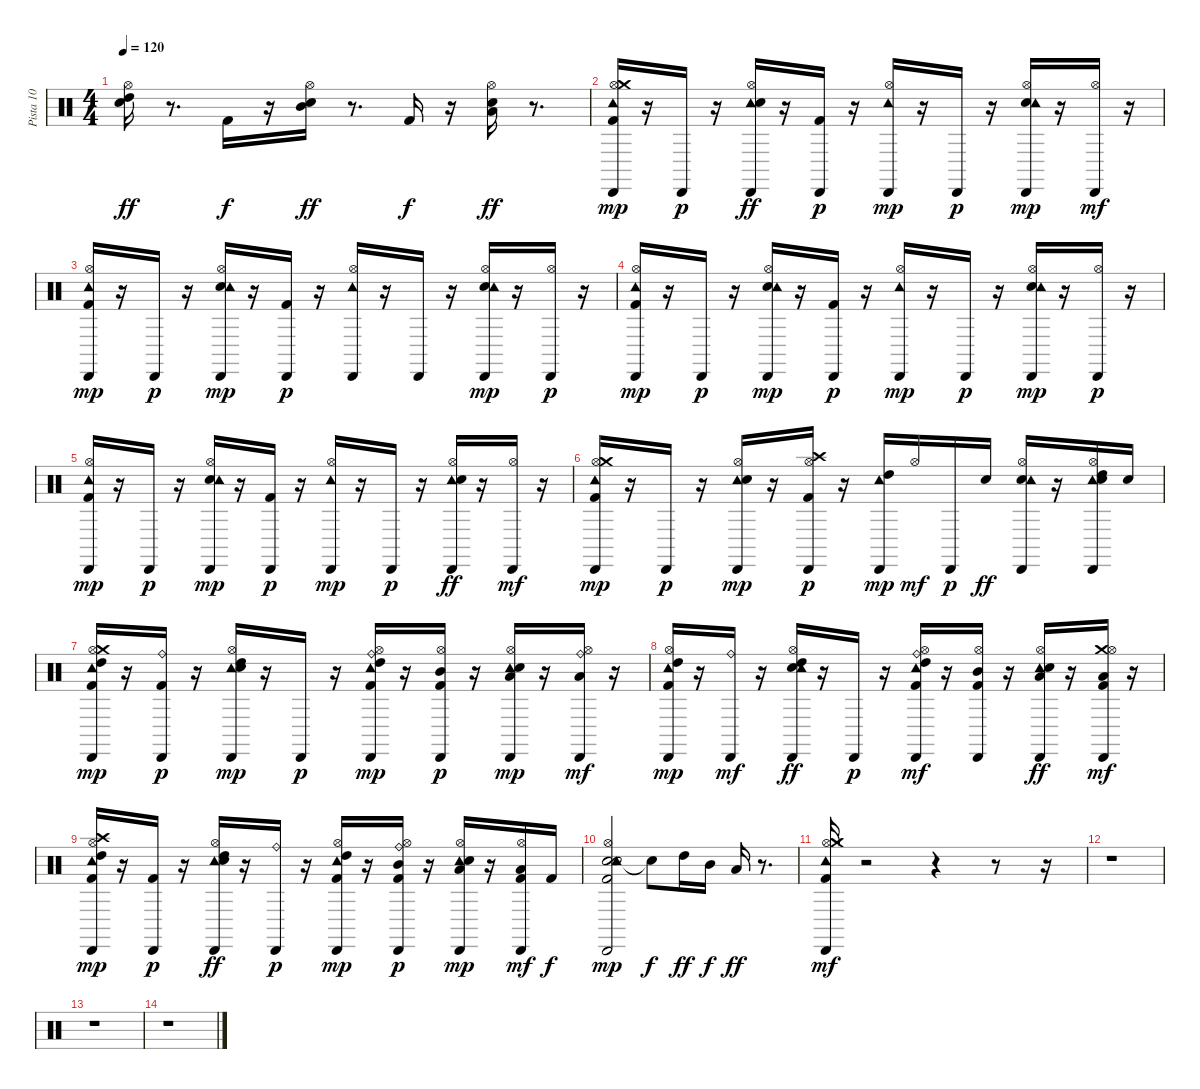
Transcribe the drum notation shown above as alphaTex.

\track ("Pista 10" "Pista 10") {instrument percussion}
\staff {score}
\articulation defaults
\ts (4 4)
\tempo 120
\clef neutral
\ks c
("Hi-Hat (open)" "High Tom (hit)" "Electric Snare (hit)").16{dy ff} r.8{d} "Kick (hit) 2".16{dy f} r.16 ("Electric Snare (hit)" "Mid Tom (hit)" "Hi-Hat (open)").16{dy ff} r.8{d} "Kick (hit) 2".16{dy f} r.16 ("Electric Snare (hit)" "Low Tom (hit)" "Hi-Hat (open)").16{dy ff} r.8{d} |
("Kick (hit) 2" "Hi-Hat (open)" "Crash medium (hit)" "Tambourine (hit)" "Cabasa (hit)").16{dy mp} r.16 "Cabasa (hit)".16{dy p} r.16 ("Hi-Hat (open)" "Tambourine (hit)" "Cabasa (hit)" "Electric Snare (hit)").16{dy ff} r.16 ("Kick (hit) 2" "Cabasa (hit)").16{dy p} r.16 ("Cabasa (hit)" "Hi-Hat (open)" "Tambourine (hit)").16{dy mp} r.16 "Cabasa (hit)".16{dy p} r.16 ("Electric Snare (hit)" "Tambourine (hit)" "Cabasa (hit)" "Hi-Hat (open)").16{dy mp} r.16 ("Cabasa (hit)" "Hi-Hat (open)").16{dy mf} r.16 |
("Kick (hit) 2" "Hi-Hat (open)" "Cabasa (hit)" "Tambourine (hit)").16{dy mp} r.16 "Cabasa (hit)".16{dy p} r.16 ("Electric Snare (hit)" "Hi-Hat (open)" "Cabasa (hit)" "Tambourine (hit)").16{dy mp} r.16 ("Kick (hit) 2" "Cabasa (hit)").16{dy p} r.16 ("Cabasa (hit)" "Hi-Hat (open)" "Tambourine (hit)").16 r.16 "Cabasa (hit)".16 r.16 ("Electric Snare (hit)" "Hi-Hat (open)" "Tambourine (hit)" "Cabasa (hit)").16{dy mp} r.16 ("Hi-Hat (open)" "Cabasa (hit)").16{dy p} r.16 |
("Hi-Hat (open)" "Kick (hit) 2" "Tambourine (hit)" "Cabasa (hit)").16{dy mp} r.16 "Cabasa (hit)".16{dy p} r.16 ("Electric Snare (hit)" "Hi-Hat (open)" "Tambourine (hit)" "Cabasa (hit)").16{dy mp} r.16 ("Kick (hit) 2" "Cabasa (hit)").16{dy p} r.16 ("Hi-Hat (open)" "Tambourine (hit)" "Cabasa (hit)").16{dy mp} r.16 "Cabasa (hit)".16{dy p} r.16 ("Electric Snare (hit)" "Hi-Hat (open)" "Cabasa (hit)" "Tambourine (hit)").16{dy mp} r.16 ("Hi-Hat (open)" "Cabasa (hit)").16{dy p} r.16 |
("Hi-Hat (open)" "Cabasa (hit)" "Tambourine (hit)" "Kick (hit) 2").16{dy mp} r.16 "Cabasa (hit)".16{dy p} r.16 ("Electric Snare (hit)" "Hi-Hat (open)" "Cabasa (hit)" "Tambourine (hit)").16{dy mp} r.16 ("Cabasa (hit)" "Kick (hit) 2").16{dy p} r.16 ("Hi-Hat (open)" "Tambourine (hit)" "Cabasa (hit)").16{dy mp} r.16 "Cabasa (hit)".16{dy p} r.16 ("Hi-Hat (open)" "Cabasa (hit)" "Tambourine (hit)" "Electric Snare (hit)").16{dy ff} r.16 ("Cabasa (hit)" "Hi-Hat (open)").16{dy mf} r.16 |
("Kick (hit) 2" "Hi-Hat (open)" "Tambourine (hit)" "Crash medium (hit)" "Cabasa (hit)").16{dy mp} r.16 "Cabasa (hit)".16{dy p} r.16 ("Tambourine (hit)" "Electric Snare (hit)" "Hi-Hat (open)" "Cabasa (hit)").16{dy mp} r.16 ("Kick (hit) 2" "Crash high (hit)" "Cabasa (hit)" "Hi-Hat (open)").16{dy p} r.16 ("Cabasa (hit)" "High Tom (hit)" "Tambourine (hit)").16{dy mp} "Hi-Hat (open)".16{dy mf} "Cabasa (hit)".16{dy p} "Electric Snare (hit)".16{dy ff} ("Cabasa (hit)" "Electric Snare (hit)" "Hi-Hat (open)" "Tambourine (hit)").16 r.16 ("Tambourine (hit)" "Hi-Hat (open)" "High Tom (hit)" "Cabasa (hit)" "Electric Snare (hit)").16 "Electric Snare (hit)".16 |
("Kick (hit) 2" "Hi-Hat (open)" "Crash medium (hit)" "Cabasa (hit)" "Tambourine (hit)" "High Tom (hit)").16{dy mp} r.16 ("Ride (bell)" "Kick (hit) 2" "Cabasa (hit)").16{dy p} r.16 ("Tambourine (hit)" "Electric Snare (hit)" "Hi-Hat (open)" "High Tom (hit)" "Cabasa (hit)").16{dy mp} r.16 "Cabasa (hit)".16{dy p} r.16 ("Kick (hit) 2" "Ride (bell)" "Cabasa (hit)" "Hi-Hat (open)" "High Tom (hit)" "Tambourine (hit)").16{dy mp} r.16 ("Hi-Hat (open)" "Kick (hit) 2" "Cabasa (hit)" "Mid Tom (hit)").16{dy p} r.16 ("Tambourine (hit)" "Hi-Hat (open)" "Electric Snare (hit)" "Low Tom (hit)" "Cabasa (hit)").16{dy mp} r.16 ("Cabasa (hit)" "Hi-Hat (open)" "Ride (bell)" "Low Tom (hit)").16{dy mf} r.16 |
("High Tom (hit)" "Tambourine (hit)" "Kick (hit) 2" "Hi-Hat (open)" "Cabasa (hit)").16{dy mp} r.16 ("Cabasa (hit)" "Ride (bell)").16{dy mf} r.16 ("Electric Snare (hit)" "Tambourine (hit)" "Cabasa (hit)" "Hi-Hat (open)" "High Tom (hit)").16{dy ff} r.16 "Cabasa (hit)".16{dy p} r.16 ("Cabasa (hit)" "Tambourine (hit)" "Kick (hit) 2" "Hi-Hat (open)" "High Tom (hit)" "Ride (bell)").16{dy mf} r.16 ("Cabasa (hit)" "Hi-Hat (open)" "Mid Tom (hit)" "Kick (hit) 2").16 r.16 ("Cabasa (hit)" "Tambourine (hit)" "Hi-Hat (open)" "Electric Snare (hit)" "Low Tom (hit)").16{dy ff} r.16 ("Crash medium (hit)" "Cabasa (hit)" "Hi-Hat (open)" "Kick (hit) 2" "Low Tom (hit)").16{dy mf} r.16 |
("Cabasa (hit)" "Hi-Hat (open)" "High Tom (hit)" "Crash high (hit)" "Kick (hit) 2" "Tambourine (hit)").16{dy mp} r.16 ("Kick (hit) 2" "Cabasa (hit)").16{dy p} r.16 ("Cabasa (hit)" "Tambourine (hit)" "High Tom (hit)" "Electric Snare (hit)" "Hi-Hat (open)").16{dy ff} r.16 ("Ride (bell)" "Cabasa (hit)").16{dy p} r.16 ("Tambourine (hit)" "Kick (hit) 2" "Hi-Hat (open)" "High Tom (hit)" "Cabasa (hit)").16{dy mp} r.16 ("Hi-Hat (open)" "Ride (bell)" "Cabasa (hit)" "Kick (hit) 2" "Mid Tom (hit)").16{dy p} r.16 ("Hi-Hat (open)" "Tambourine (hit)" "Electric Snare (hit)" "Low Tom (hit)" "Cabasa (hit)").16{dy mp} r.16 ("Cabasa (hit)" "Kick (hit) 2" "Low Tom (hit)" "Hi-Hat (open)").16{dy mf} "Kick (hit) 2".16{dy f} |
("Electric Snare (hit)" "Kick (hit) 2" "Electric Snare (hit)" "Cabasa (hit)" "Hi-Hat (open)" "Tambourine (hit)").2{dy mp} "Snare (hit)"{t}.8{dy f} "High Tom (hit)".16{dy ff} "Mid Tom (hit)".16{dy f} "Low Tom (hit)".16{dy ff} r.8{d} |
("Hi-Hat (open)" "Kick (hit) 2" "Cabasa (hit)" "Crash medium (hit)" "Tambourine (hit)").16{dy mf} r.2 r.4 r.8 r.16 |
r.1 |
r.1 |
r.1
